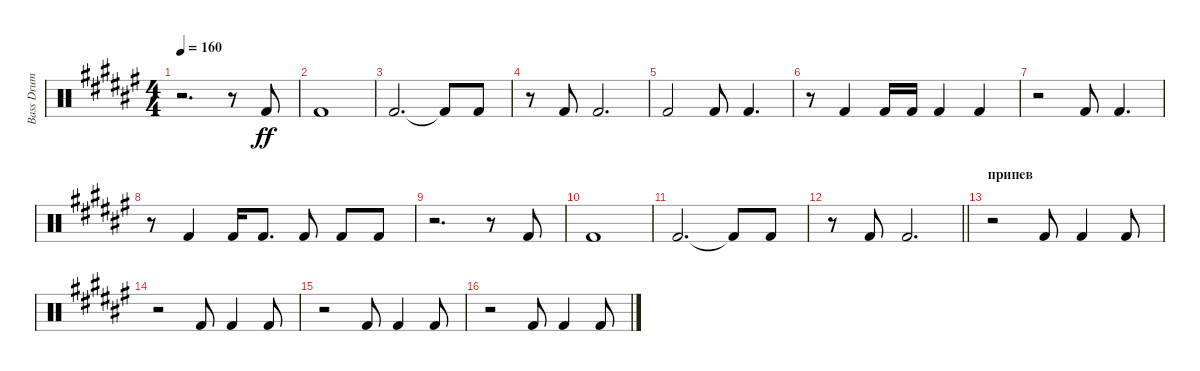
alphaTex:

\track ("Bass Drum" "Bass Drum") {instrument percussion}
\staff {score}
\articulation defaults
\ts (4 4)
\tempo 160
\clef neutral
\ks d#minor
r.2{d dy ff} r.8 "Kick (hit) 2".8 |
"Kick (hit) 2".1 |
"Kick (hit) 2".2{d} "Kick (hit) 2"{t}.8 "Kick (hit) 2".8 |
r.8 "Kick (hit) 2".8 "Kick (hit) 2".2{d} |
"Kick (hit) 2".2 "Kick (hit) 2".8 "Kick (hit) 2".4{d} |
r.8 "Kick (hit) 2".4 "Kick (hit) 2".16 "Kick (hit) 2".16 "Kick (hit) 2".4 "Kick (hit) 2".4 |
r.2 "Kick (hit) 2".8 "Kick (hit) 2".4{d} |
r.8 "Kick (hit) 2".4 "Kick (hit) 2".16 "Kick (hit) 2".8{d} "Kick (hit) 2".8 "Kick (hit) 2".8 "Kick (hit) 2".8 |
r.2{d} r.8 "Kick (hit) 2".8 |
"Kick (hit) 2".1 |
"Kick (hit) 2".2{d} "Kick (hit) 2"{t}.8 "Kick (hit) 2".8 |
\barLineRight lightlight
r.8 "Kick (hit) 2".8 "Kick (hit) 2".2{d} |
\section ("" "припев")
r.2 "Kick (hit) 2".8 "Kick (hit) 2".4 "Kick (hit) 2".8 |
r.2 "Kick (hit) 2".8 "Kick (hit) 2".4 "Kick (hit) 2".8 |
r.2 "Kick (hit) 2".8 "Kick (hit) 2".4 "Kick (hit) 2".8 |
r.2 "Kick (hit) 2".8 "Kick (hit) 2".4 "Kick (hit) 2".8
